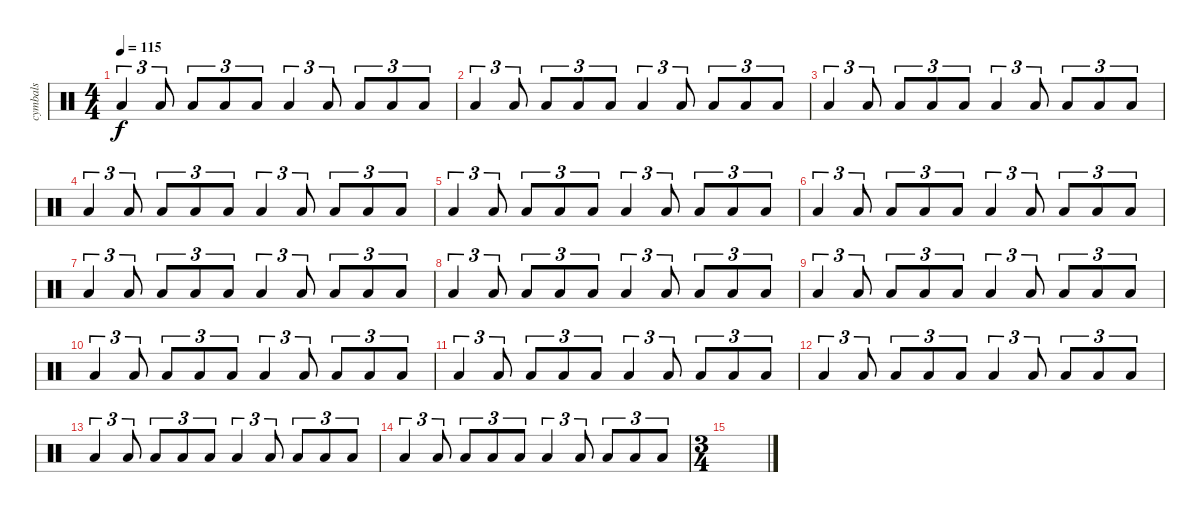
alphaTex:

\track ("cymbals" "cymbals") {instrument percussion}
\staff {score}
\articulation defaults
\ts (4 4)
\tempo 115
\clef neutral
\ks c "Low Floor Tom (hit)".4{tu (3 2) dy f} "Low Floor Tom (hit)".8{tu (3 2)} "Low Floor Tom (hit)".8{tu (3 2)} "Low Floor Tom (hit)".8{tu (3 2)} "Low Floor Tom (hit)".8{tu (3 2)} "Low Floor Tom (hit)".4{tu (3 2)} "Low Floor Tom (hit)".8{tu (3 2)} "Low Floor Tom (hit)".8{tu (3 2)} "Low Floor Tom (hit)".8{tu (3 2)} "Low Floor Tom (hit)".8{tu (3 2)}
|
"Low Floor Tom (hit)".4{tu (3 2)} "Low Floor Tom (hit)".8{tu (3 2)} "Low Floor Tom (hit)".8{tu (3 2)} "Low Floor Tom (hit)".8{tu (3 2)} "Low Floor Tom (hit)".8{tu (3 2)} "Low Floor Tom (hit)".4{tu (3 2)} "Low Floor Tom (hit)".8{tu (3 2)} "Low Floor Tom (hit)".8{tu (3 2)} "Low Floor Tom (hit)".8{tu (3 2)} "Low Floor Tom (hit)".8{tu (3 2)} |
"Low Floor Tom (hit)".4{tu (3 2)} "Low Floor Tom (hit)".8{tu (3 2)} "Low Floor Tom (hit)".8{tu (3 2)} "Low Floor Tom (hit)".8{tu (3 2)} "Low Floor Tom (hit)".8{tu (3 2)} "Low Floor Tom (hit)".4{tu (3 2)} "Low Floor Tom (hit)".8{tu (3 2)} "Low Floor Tom (hit)".8{tu (3 2)} "Low Floor Tom (hit)".8{tu (3 2)} "Low Floor Tom (hit)".8{tu (3 2)} |
"Low Floor Tom (hit)".4{tu (3 2)} "Low Floor Tom (hit)".8{tu (3 2)} "Low Floor Tom (hit)".8{tu (3 2)} "Low Floor Tom (hit)".8{tu (3 2)} "Low Floor Tom (hit)".8{tu (3 2)} "Low Floor Tom (hit)".4{tu (3 2)} "Low Floor Tom (hit)".8{tu (3 2)} "Low Floor Tom (hit)".8{tu (3 2)} "Low Floor Tom (hit)".8{tu (3 2)} "Low Floor Tom (hit)".8{tu (3 2)} |
"Low Floor Tom (hit)".4{tu (3 2)} "Low Floor Tom (hit)".8{tu (3 2)} "Low Floor Tom (hit)".8{tu (3 2)} "Low Floor Tom (hit)".8{tu (3 2)} "Low Floor Tom (hit)".8{tu (3 2)} "Low Floor Tom (hit)".4{tu (3 2)} "Low Floor Tom (hit)".8{tu (3 2)} "Low Floor Tom (hit)".8{tu (3 2)} "Low Floor Tom (hit)".8{tu (3 2)} "Low Floor Tom (hit)".8{tu (3 2)} |
"Low Floor Tom (hit)".4{tu (3 2)} "Low Floor Tom (hit)".8{tu (3 2)} "Low Floor Tom (hit)".8{tu (3 2)} "Low Floor Tom (hit)".8{tu (3 2)} "Low Floor Tom (hit)".8{tu (3 2)} "Low Floor Tom (hit)".4{tu (3 2)} "Low Floor Tom (hit)".8{tu (3 2)} "Low Floor Tom (hit)".8{tu (3 2)} "Low Floor Tom (hit)".8{tu (3 2)} "Low Floor Tom (hit)".8{tu (3 2)} |
"Low Floor Tom (hit)".4{tu (3 2)} "Low Floor Tom (hit)".8{tu (3 2)} "Low Floor Tom (hit)".8{tu (3 2)} "Low Floor Tom (hit)".8{tu (3 2)} "Low Floor Tom (hit)".8{tu (3 2)} "Low Floor Tom (hit)".4{tu (3 2)} "Low Floor Tom (hit)".8{tu (3 2)} "Low Floor Tom (hit)".8{tu (3 2)} "Low Floor Tom (hit)".8{tu (3 2)} "Low Floor Tom (hit)".8{tu (3 2)} |
"Low Floor Tom (hit)".4{tu (3 2)} "Low Floor Tom (hit)".8{tu (3 2)} "Low Floor Tom (hit)".8{tu (3 2)} "Low Floor Tom (hit)".8{tu (3 2)} "Low Floor Tom (hit)".8{tu (3 2)} "Low Floor Tom (hit)".4{tu (3 2)} "Low Floor Tom (hit)".8{tu (3 2)} "Low Floor Tom (hit)".8{tu (3 2)} "Low Floor Tom (hit)".8{tu (3 2)} "Low Floor Tom (hit)".8{tu (3 2)} |
"Low Floor Tom (hit)".4{tu (3 2)} "Low Floor Tom (hit)".8{tu (3 2)} "Low Floor Tom (hit)".8{tu (3 2)} "Low Floor Tom (hit)".8{tu (3 2)} "Low Floor Tom (hit)".8{tu (3 2)} "Low Floor Tom (hit)".4{tu (3 2)} "Low Floor Tom (hit)".8{tu (3 2)} "Low Floor Tom (hit)".8{tu (3 2)} "Low Floor Tom (hit)".8{tu (3 2)} "Low Floor Tom (hit)".8{tu (3 2)} |
"Low Floor Tom (hit)".4{tu (3 2)} "Low Floor Tom (hit)".8{tu (3 2)} "Low Floor Tom (hit)".8{tu (3 2)} "Low Floor Tom (hit)".8{tu (3 2)} "Low Floor Tom (hit)".8{tu (3 2)} "Low Floor Tom (hit)".4{tu (3 2)} "Low Floor Tom (hit)".8{tu (3 2)} "Low Floor Tom (hit)".8{tu (3 2)} "Low Floor Tom (hit)".8{tu (3 2)} "Low Floor Tom (hit)".8{tu (3 2)} |
"Low Floor Tom (hit)".4{tu (3 2)} "Low Floor Tom (hit)".8{tu (3 2)} "Low Floor Tom (hit)".8{tu (3 2)} "Low Floor Tom (hit)".8{tu (3 2)} "Low Floor Tom (hit)".8{tu (3 2)} "Low Floor Tom (hit)".4{tu (3 2)} "Low Floor Tom (hit)".8{tu (3 2)} "Low Floor Tom (hit)".8{tu (3 2)} "Low Floor Tom (hit)".8{tu (3 2)} "Low Floor Tom (hit)".8{tu (3 2)} |
"Low Floor Tom (hit)".4{tu (3 2)} "Low Floor Tom (hit)".8{tu (3 2)} "Low Floor Tom (hit)".8{tu (3 2)} "Low Floor Tom (hit)".8{tu (3 2)} "Low Floor Tom (hit)".8{tu (3 2)} "Low Floor Tom (hit)".4{tu (3 2)} "Low Floor Tom (hit)".8{tu (3 2)} "Low Floor Tom (hit)".8{tu (3 2)} "Low Floor Tom (hit)".8{tu (3 2)} "Low Floor Tom (hit)".8{tu (3 2)} |
"Low Floor Tom (hit)".4{tu (3 2)} "Low Floor Tom (hit)".8{tu (3 2)} "Low Floor Tom (hit)".8{tu (3 2)} "Low Floor Tom (hit)".8{tu (3 2)} "Low Floor Tom (hit)".8{tu (3 2)} "Low Floor Tom (hit)".4{tu (3 2)} "Low Floor Tom (hit)".8{tu (3 2)} "Low Floor Tom (hit)".8{tu (3 2)} "Low Floor Tom (hit)".8{tu (3 2)} "Low Floor Tom (hit)".8{tu (3 2)} |
"Low Floor Tom (hit)".4{tu (3 2)} "Low Floor Tom (hit)".8{tu (3 2)} "Low Floor Tom (hit)".8{tu (3 2)} "Low Floor Tom (hit)".8{tu (3 2)} "Low Floor Tom (hit)".8{tu (3 2)} "Low Floor Tom (hit)".4{tu (3 2)} "Low Floor Tom (hit)".8{tu (3 2)} "Low Floor Tom (hit)".8{tu (3 2)} "Low Floor Tom (hit)".8{tu (3 2)} "Low Floor Tom (hit)".8{tu (3 2)} |
\ts (3 4)
